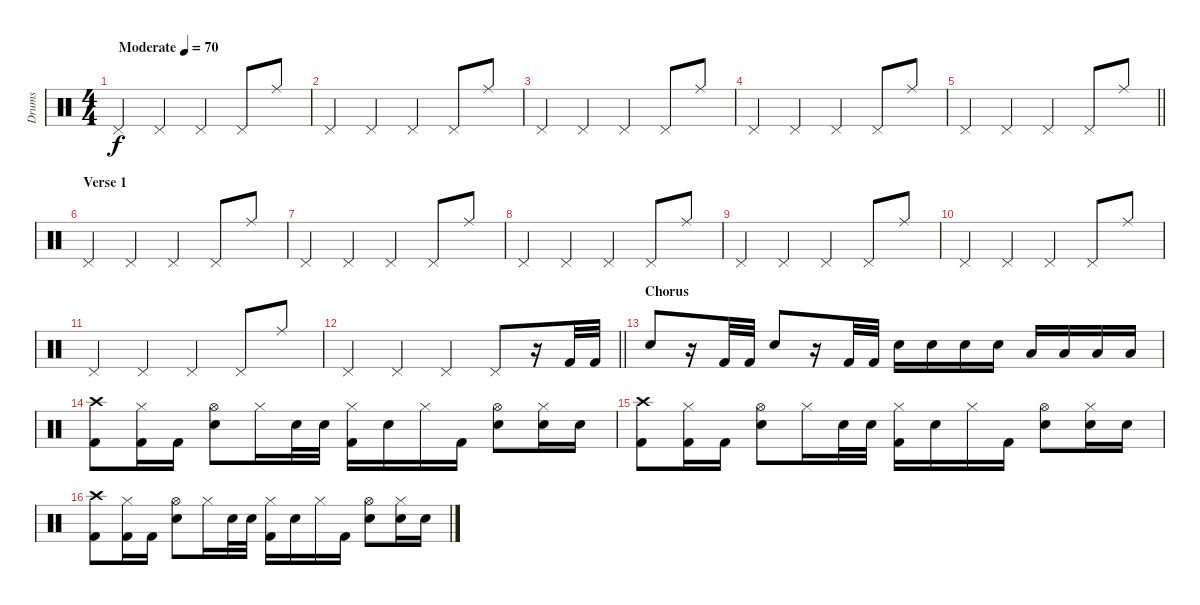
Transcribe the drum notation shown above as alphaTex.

\track ("Drums" "Drums") {instrument percussion bank 10}
\staff {score}
\articulation defaults
\ts (4 4)
\tempo (70 "Moderate")
\clef neutral
\ks c "Pedal Hi-Hat (hit)".4{dy f} "Pedal Hi-Hat (hit)".4 "Pedal Hi-Hat (hit)".4 "Pedal Hi-Hat (hit)".8 "Ride (middle)".8
|
\ks aminor "Pedal Hi-Hat (hit)".4 "Pedal Hi-Hat (hit)".4 "Pedal Hi-Hat (hit)".4 "Pedal Hi-Hat (hit)".8 "Ride (middle)".8
|
"Pedal Hi-Hat (hit)".4 "Pedal Hi-Hat (hit)".4 "Pedal Hi-Hat (hit)".4 "Pedal Hi-Hat (hit)".8 "Ride (middle)".8 |
"Pedal Hi-Hat (hit)".4 "Pedal Hi-Hat (hit)".4 "Pedal Hi-Hat (hit)".4 "Pedal Hi-Hat (hit)".8 "Ride (middle)".8 |
\barLineRight lightlight "Pedal Hi-Hat (hit)".4 "Pedal Hi-Hat (hit)".4 "Pedal Hi-Hat (hit)".4 "Pedal Hi-Hat (hit)".8 "Ride (middle)".8
|
\section ("" "Verse 1")
"Pedal Hi-Hat (hit)".4 "Pedal Hi-Hat (hit)".4 "Pedal Hi-Hat (hit)".4 "Pedal Hi-Hat (hit)".8 "Ride (middle)".8 |
"Pedal Hi-Hat (hit)".4 "Pedal Hi-Hat (hit)".4 "Pedal Hi-Hat (hit)".4 "Pedal Hi-Hat (hit)".8 "Ride (middle)".8 |
"Pedal Hi-Hat (hit)".4 "Pedal Hi-Hat (hit)".4 "Pedal Hi-Hat (hit)".4 "Pedal Hi-Hat (hit)".8 "Ride (middle)".8 |
"Pedal Hi-Hat (hit)".4 "Pedal Hi-Hat (hit)".4 "Pedal Hi-Hat (hit)".4 "Pedal Hi-Hat (hit)".8 "Ride (middle)".8 |
"Pedal Hi-Hat (hit)".4 "Pedal Hi-Hat (hit)".4 "Pedal Hi-Hat (hit)".4 "Pedal Hi-Hat (hit)".8 "Ride (middle)".8 |
"Pedal Hi-Hat (hit)".4 "Pedal Hi-Hat (hit)".4 "Pedal Hi-Hat (hit)".4 "Pedal Hi-Hat (hit)".8 "Ride (middle)".8 |
\barLineRight lightlight "Pedal Hi-Hat (hit)".4 "Pedal Hi-Hat (hit)".4 "Pedal Hi-Hat (hit)".4 "Pedal Hi-Hat (hit)".8
r.16 "Kick (hit) 2".32 "Kick (hit) 2".32 |
\section ("" "Chorus")
"Snare (hit) 2".8 r.16 "Kick (hit) 2".32 "Kick (hit) 2".32 "Snare (hit) 2".8 r.16 "Kick (hit) 2".32 "Kick (hit) 2".32 "Snare (hit) 2".16 "Snare (hit) 2".16 "Snare (hit) 2".16 "Snare (hit) 2".16 "Low Tom (hit)".16 "Low Tom (hit)".16 "Low Tom (hit)".16 "Low Tom (hit)".16 |
("Crash high (hit)" "Kick (hit) 2").8 ("Hi-Hat (closed)" "Kick (hit) 2").16 "Kick (hit) 2".16 ("Hi-Hat (open)" "Snare (hit) 2").8 "Hi-Hat (closed)".16 "Snare (hit) 2".32 "Snare (hit) 2".32 ("Hi-Hat (closed)" "Kick (hit) 2").16 "Snare (hit) 2".16 "Hi-Hat (closed)".16 "Kick (hit) 2".16 ("Hi-Hat (open)" "Snare (hit) 2").8 ("Hi-Hat (closed)" "Snare (hit) 2").16 "Snare (hit) 2".16 |
("Crash high (hit)" "Kick (hit) 2").8 ("Hi-Hat (closed)" "Kick (hit) 2").16 "Kick (hit) 2".16 ("Hi-Hat (open)" "Snare (hit) 2").8 "Hi-Hat (closed)".16 "Snare (hit) 2".32 "Snare (hit) 2".32 ("Hi-Hat (closed)" "Kick (hit) 2").16 "Snare (hit) 2".16 "Hi-Hat (closed)".16 "Kick (hit) 2".16 ("Hi-Hat (open)" "Snare (hit) 2").8 ("Hi-Hat (closed)" "Snare (hit) 2").16 "Snare (hit) 2".16 |
("Crash high (hit)" "Kick (hit) 2").8 ("Hi-Hat (closed)" "Kick (hit) 2").16 "Kick (hit) 2".16 ("Hi-Hat (open)" "Snare (hit) 2").8 "Hi-Hat (closed)".16 "Snare (hit) 2".32 "Snare (hit) 2".32 ("Hi-Hat (closed)" "Kick (hit) 2").16 "Snare (hit) 2".16 "Hi-Hat (closed)".16 "Kick (hit) 2".16 ("Hi-Hat (open)" "Snare (hit) 2").8 ("Hi-Hat (closed)" "Snare (hit) 2").16 "Snare (hit) 2".16
